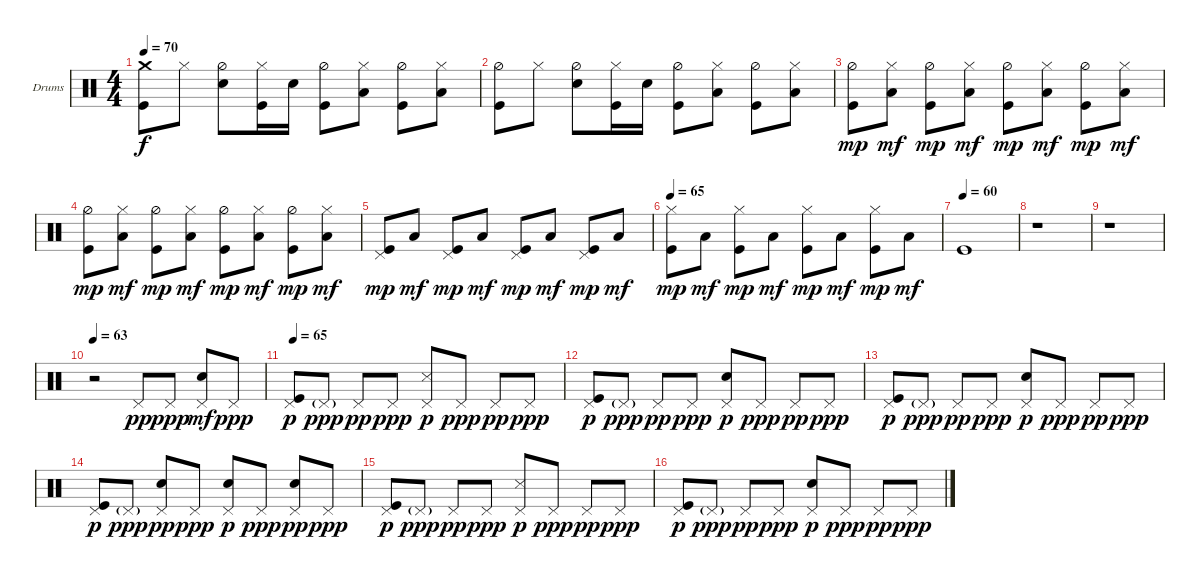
\defaultSystemsLayout 4
\bracketExtendMode groupsimilarinstruments
\firstSystemTrackNameOrientation horizontal
\otherSystemsTrackNameOrientation horizontal
\track ("Jeremiah Green" "Drums") {instrument percussion}
\staff {score}
\articulation defaults
\ts (4 4)
\tempo 70
\clef neutral
\scale
0.333333
\ks c
("Kick (hit)" "Crash medium (hit)").8{dy f} "Hi-Hat (closed)".8 ("Hi-Hat (half)" "Snare (hit) 2").8 ("Kick (hit)" "Hi-Hat (closed)").16 "Snare (hit) 2".16 ("Kick (hit)" "Hi-Hat (half)").8 ("Low Tom (hit)" "Hi-Hat (closed)").8 ("Kick (hit)" "Hi-Hat (half)").8 ("Low Tom (hit)" "Hi-Hat (closed)").8 |
\scale
0.333333 ("Kick (hit)" "Hi-Hat (half)").8 "Hi-Hat (closed)".8 ("Hi-Hat (half)" "Snare (hit) 2").8 ("Kick (hit)" "Hi-Hat (closed)").16 "Snare (hit) 2".16 ("Kick (hit)" "Hi-Hat (half)").8 ("Low Tom (hit)" "Hi-Hat (closed)").8 ("Kick (hit)" "Hi-Hat (half)").8 ("Low Tom (hit)" "Hi-Hat (closed)").8 |
\scale
0.333333 ("Kick (hit)" "Hi-Hat (half)").8{dy mp} ("Low Tom (hit)" "Hi-Hat (closed)").8{dy mf} ("Kick (hit)" "Hi-Hat (half)").8{dy mp} ("Low Tom (hit)" "Hi-Hat (closed)").8{dy mf} ("Kick (hit)" "Hi-Hat (half)").8{dy mp} ("Low Tom (hit)" "Hi-Hat (closed)").8{dy mf} ("Kick (hit)" "Hi-Hat (half)").8{dy mp} ("Low Tom (hit)" "Hi-Hat (closed)").8{dy mf} |
\scale
0.333333 ("Kick (hit)" "Hi-Hat (half)").8{dy mp} ("Low Tom (hit)" "Hi-Hat (closed)").8{dy mf} ("Kick (hit)" "Hi-Hat (half)").8{dy mp} ("Low Tom (hit)" "Hi-Hat (closed)").8{dy mf} ("Kick (hit)" "Hi-Hat (half)").8{dy mp} ("Low Tom (hit)" "Hi-Hat (closed)").8{dy mf} ("Kick (hit)" "Hi-Hat (half)").8{dy mp} ("Low Tom (hit)" "Hi-Hat (closed)").8{dy mf} |
\scale
0.333333 ("Kick (hit)" "Pedal Hi-Hat (hit)").8{dy mp} "Low Tom (hit)".8{dy mf} ("Kick (hit)" "Pedal Hi-Hat (hit)").8{dy mp} "Low Tom (hit)".8{dy mf} ("Kick (hit)" "Pedal Hi-Hat (hit)").8{dy mp} "Low Tom (hit)".8{dy mf} ("Kick (hit)" "Pedal Hi-Hat (hit)").8{dy mp} "Low Tom (hit)".8{dy mf} |
\tempo 65
\scale
0.333333 ("Kick (hit)" "Hi-Hat (closed)").8{dy mp} "Low Tom (hit)".8{dy mf} ("Kick (hit)" "Hi-Hat (closed)").8{dy mp} "Low Tom (hit)".8{dy mf} ("Kick (hit)" "Hi-Hat (closed)").8{dy mp} "Low Tom (hit)".8{dy mf} ("Kick (hit)" "Hi-Hat (closed)").8{dy mp} "Low Tom (hit)".8{dy mf} |
\tempo 60
\scale
0.333333 "Kick (hit)".1 |
\scale
0.333333 r.1 |
\scale
0.333333 r.1 |
\tempo 63
\scale
0.333333 r.2 "Pedal Hi-Hat (hit)".8{dy pp} "Pedal Hi-Hat (hit)".8{dy ppp} ("Snare (hit) 2" "Pedal Hi-Hat (hit)").8{dy mf} "Pedal Hi-Hat (hit)".8{dy ppp} |
\tempo 65
\scale
0.333333 ("Pedal Hi-Hat (hit)" "Kick (hit)").8{dy p} "Pedal Hi-Hat (hit)"{g}.8{dy ppp} "Pedal Hi-Hat (hit)".8{dy pp} "Pedal Hi-Hat (hit)".8{dy ppp} ("Snare (side stick) 3" "Pedal Hi-Hat (hit)").8{dy p} "Pedal Hi-Hat (hit)".8{dy ppp} "Pedal Hi-Hat (hit)".8{dy pp} "Pedal Hi-Hat (hit)".8{dy ppp} |
\scale
0.333333 ("Pedal Hi-Hat (hit)" "Kick (hit)").8{dy p} "Pedal Hi-Hat (hit)"{g}.8{dy ppp} "Pedal Hi-Hat (hit)".8{dy pp} "Pedal Hi-Hat (hit)".8{dy ppp} ("Snare (hit) 2" "Pedal Hi-Hat (hit)").8{dy p} "Pedal Hi-Hat (hit)".8{dy ppp} "Pedal Hi-Hat (hit)".8{dy pp} "Pedal Hi-Hat (hit)".8{dy ppp} |
\scale
0.333333 ("Pedal Hi-Hat (hit)" "Kick (hit)").8{dy p} "Pedal Hi-Hat (hit)"{g}.8{dy ppp} "Pedal Hi-Hat (hit)".8{dy pp} "Pedal Hi-Hat (hit)".8{dy ppp} ("Snare (hit) 2" "Pedal Hi-Hat (hit)").8{dy p} "Pedal Hi-Hat (hit)".8{dy ppp} "Pedal Hi-Hat (hit)".8{dy pp} "Pedal Hi-Hat (hit)".8{dy ppp} |
\scale
0.333333 ("Pedal Hi-Hat (hit)" "Kick (hit)").8{dy p} "Pedal Hi-Hat (hit)"{g}.8{dy ppp} ("Pedal Hi-Hat (hit)" "Snare (hit) 2").8{dy pp} "Pedal Hi-Hat (hit)".8{dy ppp} ("Snare (hit) 2" "Pedal Hi-Hat (hit)").8{dy p} "Pedal Hi-Hat (hit)".8{dy ppp} ("Pedal Hi-Hat (hit)" "Snare (hit) 2").8{dy pp} "Pedal Hi-Hat (hit)".8{dy ppp} |
\scale
0.333333 ("Pedal Hi-Hat (hit)" "Kick (hit)").8{dy p} "Pedal Hi-Hat (hit)"{g}.8{dy ppp} "Pedal Hi-Hat (hit)".8{dy pp} "Pedal Hi-Hat (hit)".8{dy ppp} ("Snare (side stick) 3" "Pedal Hi-Hat (hit)").8{dy p} "Pedal Hi-Hat (hit)".8{dy ppp} "Pedal Hi-Hat (hit)".8{dy pp} "Pedal Hi-Hat (hit)".8{dy ppp} |
\scale
0.333333 ("Pedal Hi-Hat (hit)" "Kick (hit)").8{dy p} "Pedal Hi-Hat (hit)"{g}.8{dy ppp} "Pedal Hi-Hat (hit)".8{dy pp} "Pedal Hi-Hat (hit)".8{dy ppp} ("Snare (hit) 2" "Pedal Hi-Hat (hit)").8{dy p} "Pedal Hi-Hat (hit)".8{dy ppp} "Pedal Hi-Hat (hit)".8{dy pp} "Pedal Hi-Hat (hit)".8{dy ppp}
